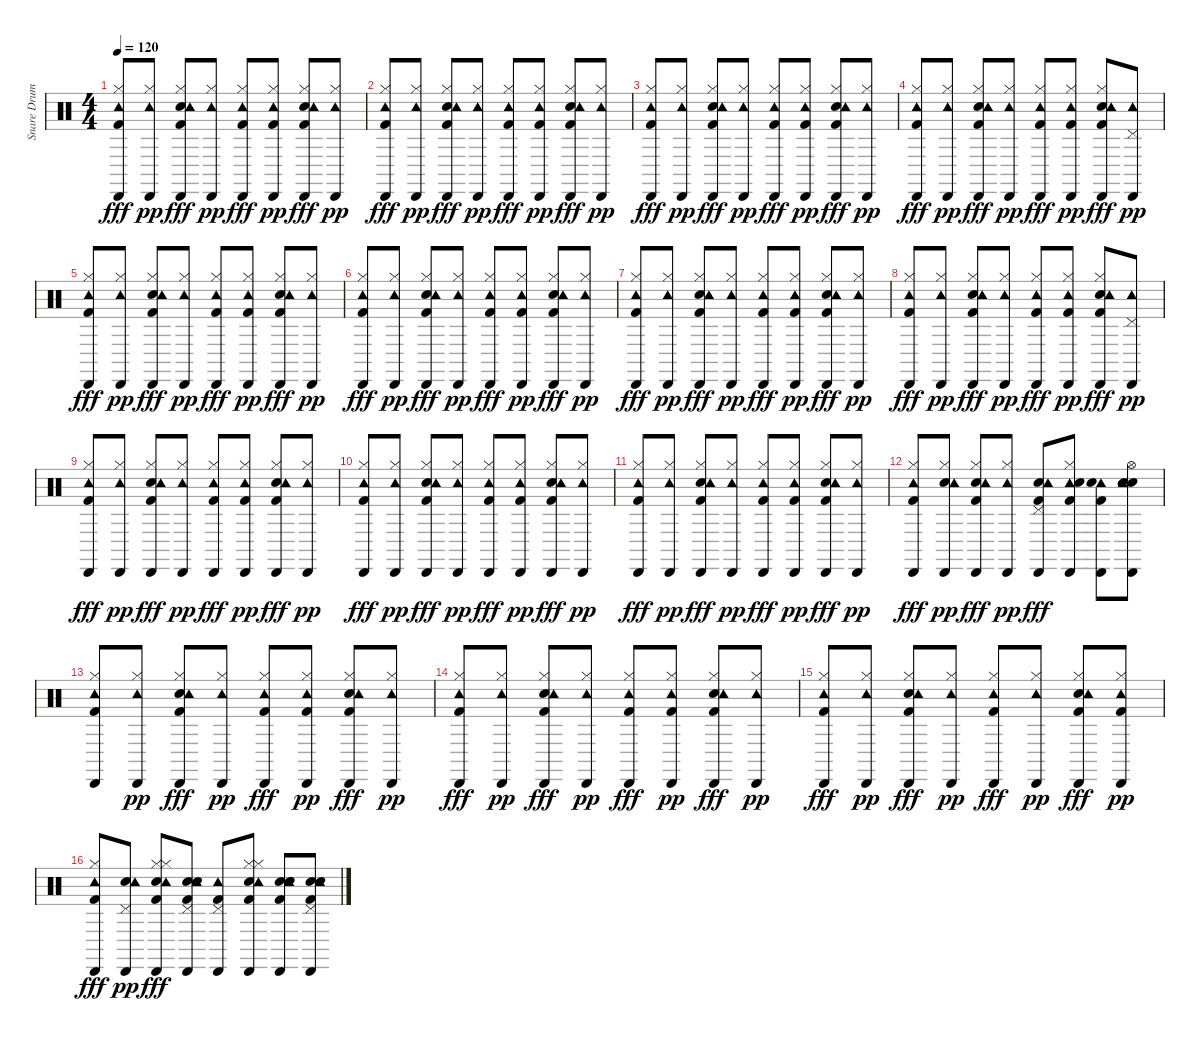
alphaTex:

\track ("Snare Drum      " "Snare Drum") {instrument percussion}
\staff {score}
\articulation defaults
\ts (4 4)
\tempo 120
\clef neutral
\ks c
("Kick (hit) 2" "Hi-Hat (closed)" "Tambourine (hit)" "Cabasa (hit)").8{dy fff} ("Hi-Hat (closed)" "Tambourine (hit)" "Cabasa (hit)").8{dy pp} ("Snare (hit) 2" "Kick (hit) 2" "Hi-Hat (closed)" "Tambourine (hit)" "Cabasa (hit)").8{dy fff} ("Hi-Hat (closed)" "Tambourine (hit)" "Cabasa (hit)").8{dy pp} ("Kick (hit) 2" "Hi-Hat (closed)" "Tambourine (hit)" "Cabasa (hit)").8{dy fff} ("Kick (hit) 2" "Hi-Hat (closed)" "Tambourine (hit)" "Cabasa (hit)").8{dy pp} ("Snare (hit) 2" "Kick (hit) 2" "Hi-Hat (closed)" "Tambourine (hit)" "Cabasa (hit)").8{dy fff} ("Hi-Hat (closed)" "Tambourine (hit)" "Cabasa (hit)").8{dy pp} |
("Kick (hit) 2" "Hi-Hat (closed)" "Tambourine (hit)" "Cabasa (hit)").8{dy fff} ("Hi-Hat (closed)" "Tambourine (hit)" "Cabasa (hit)").8{dy pp} ("Snare (hit) 2" "Kick (hit) 2" "Hi-Hat (closed)" "Tambourine (hit)" "Cabasa (hit)").8{dy fff} ("Hi-Hat (closed)" "Tambourine (hit)" "Cabasa (hit)").8{dy pp} ("Kick (hit) 2" "Hi-Hat (closed)" "Tambourine (hit)" "Cabasa (hit)").8{dy fff} ("Kick (hit) 2" "Hi-Hat (closed)" "Tambourine (hit)" "Cabasa (hit)").8{dy pp} ("Snare (hit) 2" "Kick (hit) 2" "Hi-Hat (closed)" "Tambourine (hit)" "Cabasa (hit)").8{dy fff} ("Hi-Hat (closed)" "Tambourine (hit)" "Cabasa (hit)").8{dy pp} |
("Kick (hit) 2" "Hi-Hat (closed)" "Tambourine (hit)" "Cabasa (hit)").8{dy fff} ("Hi-Hat (closed)" "Tambourine (hit)" "Cabasa (hit)").8{dy pp} ("Snare (hit) 2" "Kick (hit) 2" "Hi-Hat (closed)" "Tambourine (hit)" "Cabasa (hit)").8{dy fff} ("Hi-Hat (closed)" "Tambourine (hit)" "Cabasa (hit)").8{dy pp} ("Kick (hit) 2" "Hi-Hat (closed)" "Tambourine (hit)" "Cabasa (hit)").8{dy fff} ("Kick (hit) 2" "Hi-Hat (closed)" "Tambourine (hit)" "Cabasa (hit)").8{dy pp} ("Snare (hit) 2" "Kick (hit) 2" "Hi-Hat (closed)" "Tambourine (hit)" "Cabasa (hit)").8{dy fff} ("Hi-Hat (closed)" "Tambourine (hit)" "Cabasa (hit)").8{dy pp} |
("Kick (hit) 2" "Hi-Hat (closed)" "Tambourine (hit)" "Cabasa (hit)").8{dy fff} ("Hi-Hat (closed)" "Tambourine (hit)" "Cabasa (hit)").8{dy pp} ("Snare (hit) 2" "Kick (hit) 2" "Hi-Hat (closed)" "Tambourine (hit)" "Cabasa (hit)").8{dy fff} ("Hi-Hat (closed)" "Tambourine (hit)" "Cabasa (hit)").8{dy pp} ("Kick (hit) 2" "Hi-Hat (closed)" "Tambourine (hit)" "Cabasa (hit)").8{dy fff} ("Kick (hit) 2" "Hi-Hat (closed)" "Tambourine (hit)" "Cabasa (hit)").8{dy pp} ("Snare (hit) 2" "Kick (hit) 2" "Hi-Hat (closed)" "Tambourine (hit)" "Cabasa (hit)").8{dy fff} ("Pedal Hi-Hat (hit)" "Tambourine (hit)" "Cabasa (hit)").8{dy pp} |
("Kick (hit) 2" "Hi-Hat (closed)" "Tambourine (hit)" "Cabasa (hit)").8{dy fff} ("Hi-Hat (closed)" "Tambourine (hit)" "Cabasa (hit)").8{dy pp} ("Snare (hit) 2" "Kick (hit) 2" "Hi-Hat (closed)" "Tambourine (hit)" "Cabasa (hit)").8{dy fff} ("Hi-Hat (closed)" "Tambourine (hit)" "Cabasa (hit)").8{dy pp} ("Kick (hit) 2" "Hi-Hat (closed)" "Tambourine (hit)" "Cabasa (hit)").8{dy fff} ("Kick (hit) 2" "Hi-Hat (closed)" "Tambourine (hit)" "Cabasa (hit)").8{dy pp} ("Snare (hit) 2" "Kick (hit) 2" "Hi-Hat (closed)" "Tambourine (hit)" "Cabasa (hit)").8{dy fff} ("Hi-Hat (closed)" "Tambourine (hit)" "Cabasa (hit)").8{dy pp} |
("Kick (hit) 2" "Hi-Hat (closed)" "Tambourine (hit)" "Cabasa (hit)").8{dy fff} ("Hi-Hat (closed)" "Tambourine (hit)" "Cabasa (hit)").8{dy pp} ("Snare (hit) 2" "Kick (hit) 2" "Hi-Hat (closed)" "Tambourine (hit)" "Cabasa (hit)").8{dy fff} ("Hi-Hat (closed)" "Tambourine (hit)" "Cabasa (hit)").8{dy pp} ("Kick (hit) 2" "Hi-Hat (closed)" "Tambourine (hit)" "Cabasa (hit)").8{dy fff} ("Kick (hit) 2" "Hi-Hat (closed)" "Tambourine (hit)" "Cabasa (hit)").8{dy pp} ("Snare (hit) 2" "Kick (hit) 2" "Hi-Hat (closed)" "Tambourine (hit)" "Cabasa (hit)").8{dy fff} ("Hi-Hat (closed)" "Tambourine (hit)" "Cabasa (hit)").8{dy pp} |
("Kick (hit) 2" "Hi-Hat (closed)" "Tambourine (hit)" "Cabasa (hit)").8{dy fff} ("Hi-Hat (closed)" "Tambourine (hit)" "Cabasa (hit)").8{dy pp} ("Snare (hit) 2" "Kick (hit) 2" "Hi-Hat (closed)" "Tambourine (hit)" "Cabasa (hit)").8{dy fff} ("Hi-Hat (closed)" "Tambourine (hit)" "Cabasa (hit)").8{dy pp} ("Kick (hit) 2" "Hi-Hat (closed)" "Tambourine (hit)" "Cabasa (hit)").8{dy fff} ("Kick (hit) 2" "Hi-Hat (closed)" "Tambourine (hit)" "Cabasa (hit)").8{dy pp} ("Snare (hit) 2" "Kick (hit) 2" "Hi-Hat (closed)" "Tambourine (hit)" "Cabasa (hit)").8{dy fff} ("Hi-Hat (closed)" "Tambourine (hit)" "Cabasa (hit)").8{dy pp} |
("Kick (hit) 2" "Hi-Hat (closed)" "Tambourine (hit)" "Cabasa (hit)").8{dy fff} ("Hi-Hat (closed)" "Tambourine (hit)" "Cabasa (hit)").8{dy pp} ("Snare (hit) 2" "Kick (hit) 2" "Hi-Hat (closed)" "Tambourine (hit)" "Cabasa (hit)").8{dy fff} ("Hi-Hat (closed)" "Tambourine (hit)" "Cabasa (hit)").8{dy pp} ("Kick (hit) 2" "Hi-Hat (closed)" "Tambourine (hit)" "Cabasa (hit)").8{dy fff} ("Kick (hit) 2" "Hi-Hat (closed)" "Tambourine (hit)" "Cabasa (hit)").8{dy pp} ("Snare (hit) 2" "Kick (hit) 2" "Hi-Hat (closed)" "Tambourine (hit)" "Cabasa (hit)").8{dy fff} ("Pedal Hi-Hat (hit)" "Tambourine (hit)" "Cabasa (hit)").8{dy pp} |
("Kick (hit) 2" "Hi-Hat (closed)" "Tambourine (hit)" "Cabasa (hit)").8{dy fff} ("Hi-Hat (closed)" "Tambourine (hit)" "Cabasa (hit)").8{dy pp} ("Snare (hit) 2" "Kick (hit) 2" "Hi-Hat (closed)" "Tambourine (hit)" "Cabasa (hit)").8{dy fff} ("Hi-Hat (closed)" "Tambourine (hit)" "Cabasa (hit)").8{dy pp} ("Kick (hit) 2" "Hi-Hat (closed)" "Tambourine (hit)" "Cabasa (hit)").8{dy fff} ("Kick (hit) 2" "Hi-Hat (closed)" "Tambourine (hit)" "Cabasa (hit)").8{dy pp} ("Snare (hit) 2" "Kick (hit) 2" "Hi-Hat (closed)" "Tambourine (hit)" "Cabasa (hit)").8{dy fff} ("Hi-Hat (closed)" "Tambourine (hit)" "Cabasa (hit)").8{dy pp} |
("Kick (hit) 2" "Hi-Hat (closed)" "Tambourine (hit)" "Cabasa (hit)").8{dy fff} ("Hi-Hat (closed)" "Tambourine (hit)" "Cabasa (hit)").8{dy pp} ("Snare (hit) 2" "Kick (hit) 2" "Hi-Hat (closed)" "Tambourine (hit)" "Cabasa (hit)").8{dy fff} ("Hi-Hat (closed)" "Tambourine (hit)" "Cabasa (hit)").8{dy pp} ("Kick (hit) 2" "Hi-Hat (closed)" "Tambourine (hit)" "Cabasa (hit)").8{dy fff} ("Kick (hit) 2" "Hi-Hat (closed)" "Tambourine (hit)" "Cabasa (hit)").8{dy pp} ("Snare (hit) 2" "Kick (hit) 2" "Hi-Hat (closed)" "Tambourine (hit)" "Cabasa (hit)").8{dy fff} ("Hi-Hat (closed)" "Tambourine (hit)" "Cabasa (hit)").8{dy pp} |
("Kick (hit) 2" "Hi-Hat (closed)" "Tambourine (hit)" "Cabasa (hit)").8{dy fff} ("Hi-Hat (closed)" "Tambourine (hit)" "Cabasa (hit)").8{dy pp} ("Snare (hit) 2" "Kick (hit) 2" "Hi-Hat (closed)" "Tambourine (hit)" "Cabasa (hit)").8{dy fff} ("Hi-Hat (closed)" "Tambourine (hit)" "Cabasa (hit)").8{dy pp} ("Kick (hit) 2" "Hi-Hat (closed)" "Tambourine (hit)" "Cabasa (hit)").8{dy fff} ("Kick (hit) 2" "Hi-Hat (closed)" "Tambourine (hit)" "Cabasa (hit)").8{dy pp} ("Snare (hit) 2" "Kick (hit) 2" "Hi-Hat (closed)" "Tambourine (hit)" "Cabasa (hit)").8{dy fff} ("Hi-Hat (closed)" "Tambourine (hit)" "Cabasa (hit)").8{dy pp} |
("Kick (hit) 2" "Hi-Hat (closed)" "Tambourine (hit)" "Cabasa (hit)").8{dy fff} ("Snare (hit) 2" "Hi-Hat (closed)" "Tambourine (hit)" "Cabasa (hit)").8{dy pp} ("Snare (hit) 2" "Kick (hit) 2" "Hi-Hat (closed)" "Tambourine (hit)" "Cabasa (hit)").8{dy fff} ("Hi-Hat (closed)" "Tambourine (hit)" "Cabasa (hit)").8{dy pp} ("Snare (hit) 2" "Kick (hit) 2" "Pedal Hi-Hat (hit)" "Tambourine (hit)" "Cabasa (hit)").8{dy fff} ("Kick (hit) 2" "Hi-Hat (closed)" "Tambourine (hit)" "Cabasa (hit)" "Snare (hit) 2").8 ("Kick (hit) 2" "Tambourine (hit)" "Cabasa (hit)" "Snare (hit) 2").8 ("Snare (hit) 2" "Hi-Hat (open)" "Tambourine (hit)" "Cabasa (hit)" "Snare (hit) 2").8 |
("Kick (hit) 2" "Hi-Hat (closed)" "Tambourine (hit)" "Cabasa (hit)").8 ("Hi-Hat (closed)" "Tambourine (hit)" "Cabasa (hit)").8{dy pp} ("Snare (hit) 2" "Kick (hit) 2" "Hi-Hat (closed)" "Tambourine (hit)" "Cabasa (hit)").8{dy fff} ("Hi-Hat (closed)" "Tambourine (hit)" "Cabasa (hit)").8{dy pp} ("Kick (hit) 2" "Hi-Hat (closed)" "Tambourine (hit)" "Cabasa (hit)").8{dy fff} ("Kick (hit) 2" "Hi-Hat (closed)" "Tambourine (hit)" "Cabasa (hit)").8{dy pp} ("Snare (hit) 2" "Kick (hit) 2" "Hi-Hat (closed)" "Tambourine (hit)" "Cabasa (hit)").8{dy fff} ("Hi-Hat (closed)" "Tambourine (hit)" "Cabasa (hit)").8{dy pp} |
("Kick (hit) 2" "Hi-Hat (closed)" "Tambourine (hit)" "Cabasa (hit)").8{dy fff} ("Hi-Hat (closed)" "Tambourine (hit)" "Cabasa (hit)").8{dy pp} ("Snare (hit) 2" "Kick (hit) 2" "Hi-Hat (closed)" "Tambourine (hit)" "Cabasa (hit)").8{dy fff} ("Hi-Hat (closed)" "Tambourine (hit)" "Cabasa (hit)").8{dy pp} ("Kick (hit) 2" "Hi-Hat (closed)" "Tambourine (hit)" "Cabasa (hit)").8{dy fff} ("Kick (hit) 2" "Hi-Hat (closed)" "Tambourine (hit)" "Cabasa (hit)").8{dy pp} ("Snare (hit) 2" "Kick (hit) 2" "Hi-Hat (closed)" "Tambourine (hit)" "Cabasa (hit)").8{dy fff} ("Hi-Hat (closed)" "Tambourine (hit)" "Cabasa (hit)").8{dy pp} |
("Kick (hit) 2" "Hi-Hat (closed)" "Tambourine (hit)" "Cabasa (hit)").8{dy fff} ("Hi-Hat (closed)" "Tambourine (hit)" "Cabasa (hit)").8{dy pp} ("Snare (hit) 2" "Kick (hit) 2" "Hi-Hat (closed)" "Tambourine (hit)" "Cabasa (hit)").8{dy fff} ("Hi-Hat (closed)" "Tambourine (hit)" "Cabasa (hit)").8{dy pp} ("Kick (hit) 2" "Hi-Hat (closed)" "Tambourine (hit)" "Cabasa (hit)").8{dy fff} ("Hi-Hat (closed)" "Tambourine (hit)" "Cabasa (hit)").8{dy pp} ("Snare (hit) 2" "Kick (hit) 2" "Hi-Hat (closed)" "Tambourine (hit)" "Cabasa (hit)").8{dy fff} ("Kick (hit) 2" "Hi-Hat (closed)" "Tambourine (hit)" "Cabasa (hit)").8{dy pp} |
("Kick (hit) 2" "Hi-Hat (closed)" "Tambourine (hit)" "Cabasa (hit)").8{dy fff} ("Snare (hit) 2" "Pedal Hi-Hat (hit)" "Tambourine (hit)" "Cabasa (hit)").8{dy pp} ("Snare (hit) 2" "Kick (hit) 2" "Hi-Hat (closed)" "Tambourine (hit)" "Cabasa (hit)" "Hi-Hat (closed)").8{dy fff} ("Snare (hit) 2" "Tambourine (hit)" "Cabasa (hit)" "Snare (hit) 2" "Kick (hit) 2" "Pedal Hi-Hat (hit)").8 ("Kick (hit) 2" "Pedal Hi-Hat (hit)" "Tambourine (hit)" "Cabasa (hit)").8 ("Snare (hit) 2" "Hi-Hat (closed)" "Tambourine (hit)" "Cabasa (hit)" "Kick (hit) 2" "Hi-Hat (closed)").8 ("Snare (hit) 2" "Electric Snare (hit)" "Kick (hit) 2" "Tambourine (hit)" "Cabasa (hit)" "Snare (hit) 2").8 ("Snare (hit) 2" "Pedal Hi-Hat (hit)" "Tambourine (hit)" "Cabasa (hit)" "Snare (hit) 2" "Kick (hit) 2").8
